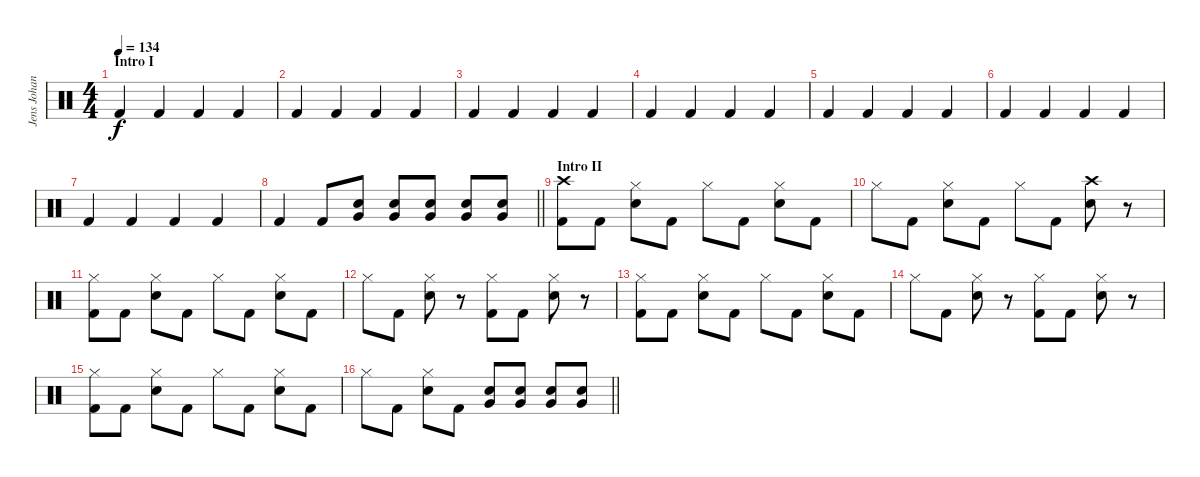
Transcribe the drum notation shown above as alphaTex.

\track ("Jens Johansson" "Jens Johan") {instrument percussion}
\staff {score}
\articulation defaults
\ts (4 4)
\section ("" "Intro I")
\tempo 134
\clef neutral
\ks c "Kick (hit) 2".4{dy f} "Kick (hit) 2".4 "Kick (hit) 2".4 "Kick (hit) 2".4
|
"Kick (hit) 2".4 "Kick (hit) 2".4 "Kick (hit) 2".4 "Kick (hit) 2".4 |
"Kick (hit) 2".4 "Kick (hit) 2".4 "Kick (hit) 2".4 "Kick (hit) 2".4 |
"Kick (hit) 2".4 "Kick (hit) 2".4 "Kick (hit) 2".4 "Kick (hit) 2".4 |
"Kick (hit) 2".4 "Kick (hit) 2".4 "Kick (hit) 2".4 "Kick (hit) 2".4 |
"Kick (hit) 2".4 "Kick (hit) 2".4 "Kick (hit) 2".4 "Kick (hit) 2".4 |
"Kick (hit) 2".4 "Kick (hit) 2".4 "Kick (hit) 2".4 "Kick (hit) 2".4 |
\barLineRight lightlight "Kick (hit) 2".4 "Kick (hit) 2".8
("Electric Snare (hit)" "Very Low Tom (hit)").8 ("Electric Snare (hit)" "Very Low Tom (hit)").8 ("Electric Snare (hit)" "Very Low Tom (hit)").8 ("Electric Snare (hit)" "Very Low Tom (hit)").8 ("Electric Snare (hit)" "Very Low Tom (hit)").8 |
\section ("" "Intro II")
("Crash high (hit)" "Kick (hit) 2").8 "Kick (hit) 2".8 ("Electric Snare (hit)" "Hi-Hat (closed)").8 "Kick (hit) 2".8 "Hi-Hat (closed)".8 "Kick (hit) 2".8 ("Electric Snare (hit)" "Hi-Hat (closed)").8 "Kick (hit) 2".8 |
"Hi-Hat (closed)".8 "Kick (hit) 2".8 ("Electric Snare (hit)" "Hi-Hat (closed)").8 "Kick (hit) 2".8 "Hi-Hat (closed)".8 "Kick (hit) 2".8 ("Crash high (hit)" "Electric Snare (hit)").8 r.8 |
("Hi-Hat (closed)" "Kick (hit) 2").8 "Kick (hit) 2".8 ("Electric Snare (hit)" "Hi-Hat (closed)").8 "Kick (hit) 2".8 "Hi-Hat (closed)".8 "Kick (hit) 2".8 ("Electric Snare (hit)" "Hi-Hat (closed)").8 "Kick (hit) 2".8 |
"Hi-Hat (closed)".8 "Kick (hit) 2".8 ("Electric Snare (hit)" "Hi-Hat (closed)").8 r.8 ("Hi-Hat (closed)" "Kick (hit) 2").8 "Kick (hit) 2".8 ("Electric Snare (hit)" "Hi-Hat (closed)").8 r.8 |
("Hi-Hat (closed)" "Kick (hit) 2").8 "Kick (hit) 2".8 ("Electric Snare (hit)" "Hi-Hat (closed)").8 "Kick (hit) 2".8 "Hi-Hat (closed)".8 "Kick (hit) 2".8 ("Electric Snare (hit)" "Hi-Hat (closed)").8 "Kick (hit) 2".8 |
"Hi-Hat (closed)".8 "Kick (hit) 2".8 ("Electric Snare (hit)" "Hi-Hat (closed)").8 r.8 ("Hi-Hat (closed)" "Kick (hit) 2").8 "Kick (hit) 2".8 ("Electric Snare (hit)" "Hi-Hat (closed)").8 r.8 |
("Hi-Hat (closed)" "Kick (hit) 2").8 "Kick (hit) 2".8 ("Electric Snare (hit)" "Hi-Hat (closed)").8 "Kick (hit) 2".8 "Hi-Hat (closed)".8 "Kick (hit) 2".8 ("Electric Snare (hit)" "Hi-Hat (closed)").8 "Kick (hit) 2".8 |
\barLineRight lightlight "Hi-Hat (closed)".8 "Kick (hit) 2".8
("Electric Snare (hit)" "Hi-Hat (closed)").8 "Kick (hit) 2".8 ("Electric Snare (hit)" "Very Low Tom (hit)").8 ("Electric Snare (hit)" "Very Low Tom (hit)").8 ("Electric Snare (hit)" "Very Low Tom (hit)").8 ("Electric Snare (hit)" "Very Low Tom (hit)").8
